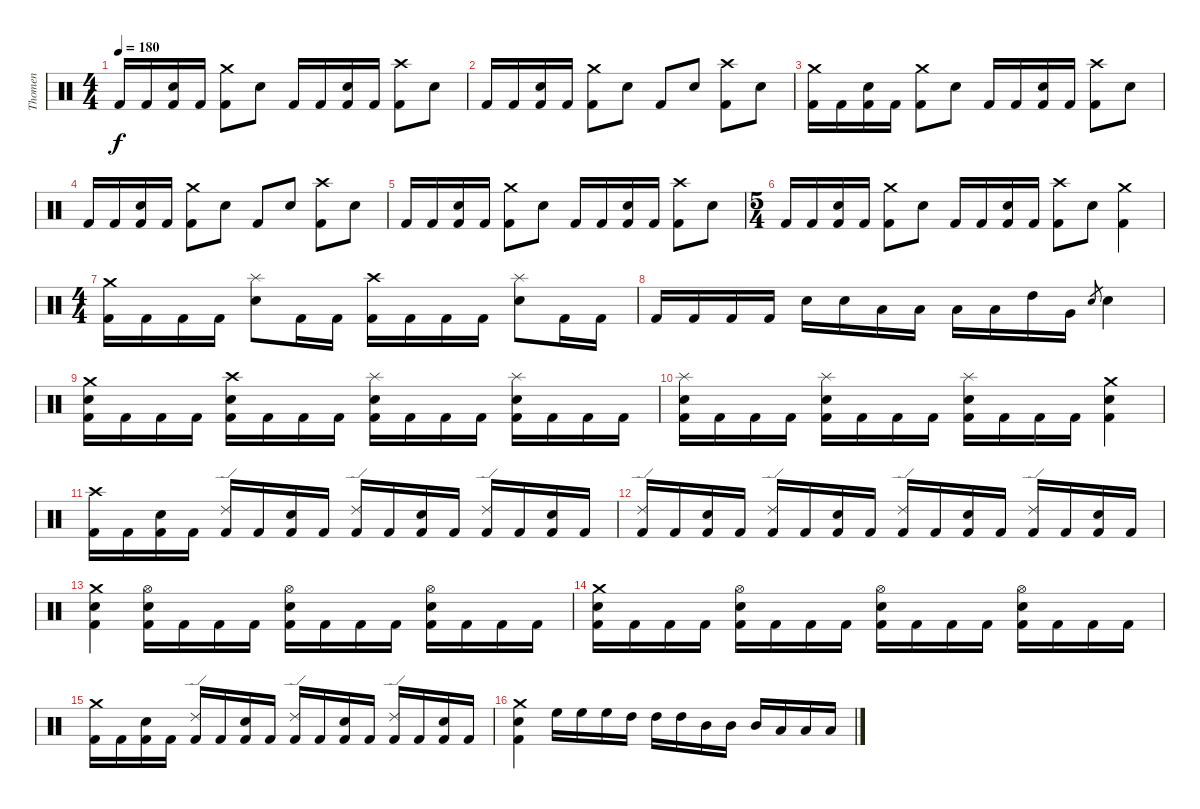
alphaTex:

\track ("Thomen" "Thomen") {instrument percussion}
\staff {score}
\articulation defaults
\ts (4 4)
\tempo 180
\clef neutral
\ks c "Kick (hit) 2".16{dy f} "Kick (hit) 2".16
("Kick (hit) 2" "Electric Snare (hit)").16 "Kick (hit) 2".16 ("Kick (hit) 2" "Crash medium (hit)").8 "Electric Snare (hit)".8 "Kick (hit) 2".16 "Kick (hit) 2".16 ("Kick (hit) 2" "Electric Snare (hit)").16 "Kick (hit) 2".16 ("Kick (hit) 2" "Crash high (hit)").8 "Electric Snare (hit)".8 |
"Kick (hit) 2".16 "Kick (hit) 2".16 ("Kick (hit) 2" "Electric Snare (hit)").16 "Kick (hit) 2".16 ("Kick (hit) 2" "Crash medium (hit)").8 "Electric Snare (hit)".8 "Kick (hit) 2".8 "Electric Snare (hit)".8 ("Kick (hit) 2" "Crash high (hit)").8 "Electric Snare (hit)".8 |
("Kick (hit) 2" "Crash medium (hit)").16 "Kick (hit) 2".16 ("Kick (hit) 2" "Electric Snare (hit)").16 "Kick (hit) 2".16 ("Kick (hit) 2" "Crash medium (hit)").8 "Electric Snare (hit)".8 "Kick (hit) 2".16 "Kick (hit) 2".16 ("Kick (hit) 2" "Electric Snare (hit)").16 "Kick (hit) 2".16 ("Kick (hit) 2" "Crash high (hit)").8 "Electric Snare (hit)".8 |
"Kick (hit) 2".16 "Kick (hit) 2".16 ("Kick (hit) 2" "Electric Snare (hit)").16 "Kick (hit) 2".16 ("Kick (hit) 2" "Crash medium (hit)").8 "Electric Snare (hit)".8 "Kick (hit) 2".8 "Electric Snare (hit)".8 ("Kick (hit) 2" "Crash high (hit)").8 "Electric Snare (hit)".8 |
"Kick (hit) 2".16 "Kick (hit) 2".16 ("Kick (hit) 2" "Electric Snare (hit)").16 "Kick (hit) 2".16 ("Kick (hit) 2" "Crash medium (hit)").8 "Electric Snare (hit)".8 "Kick (hit) 2".16 "Kick (hit) 2".16 ("Kick (hit) 2" "Electric Snare (hit)").16 "Kick (hit) 2".16 ("Kick (hit) 2" "Crash high (hit)").8 "Electric Snare (hit)".8 |
\ts (5 4)
"Kick (hit) 2".16 "Kick (hit) 2".16 ("Kick (hit) 2" "Electric Snare (hit)").16 "Kick (hit) 2".16 ("Kick (hit) 2" "Crash medium (hit)").8 "Electric Snare (hit)".8 "Kick (hit) 2".16 "Kick (hit) 2".16 ("Kick (hit) 2" "Electric Snare (hit)").16 "Kick (hit) 2".16 ("Kick (hit) 2" "Crash high (hit)").8 "Electric Snare (hit)".8 ("Kick (hit) 2" "Crash medium (hit)").4 |
\ts (4 4)
("Kick (hit) 2" "Crash medium (hit)").16 "Kick (hit) 2".16 "Kick (hit) 2".16 "Kick (hit) 2".16 ("Electric Snare (hit)" "Splash (hit)").8 "Kick (hit) 2".16 "Kick (hit) 2".16 ("Kick (hit) 2" "Crash high (hit)").16 "Kick (hit) 2".16 "Kick (hit) 2".16 "Kick (hit) 2".16 ("Electric Snare (hit)" "Splash (hit)").8 "Kick (hit) 2".16 "Kick (hit) 2".16 |
"Kick (hit) 2".16 "Kick (hit) 2".16 "Kick (hit) 2".16 "Kick (hit) 2".16 "Electric Snare (hit)".16 "Electric Snare (hit)".16 "Low Tom (hit)".16 "Low Tom (hit)".16 "Low Tom (hit)".16 "Low Tom (hit)".16 "High Tom (hit)".16 "Very Low Tom (hit)".16 "Electric Snare (hit)".8{gr} "Electric Snare (hit)".4 |
("Kick (hit) 2" "Electric Snare (hit)" "Crash medium (hit)").16 "Kick (hit) 2".16 "Kick (hit) 2".16 "Kick (hit) 2".16 ("Kick (hit) 2" "Electric Snare (hit)" "Crash high (hit)").16 "Kick (hit) 2".16 "Kick (hit) 2".16 "Kick (hit) 2".16 ("Kick (hit) 2" "Electric Snare (hit)" "Splash (hit)").16 "Kick (hit) 2".16 "Kick (hit) 2".16 "Kick (hit) 2".16 ("Kick (hit) 2" "Electric Snare (hit)" "Splash (hit)").16 "Kick (hit) 2".16 "Kick (hit) 2".16 "Kick (hit) 2".16 |
("Kick (hit) 2" "Electric Snare (hit)" "Splash (hit)").16 "Kick (hit) 2".16 "Kick (hit) 2".16 "Kick (hit) 2".16 ("Kick (hit) 2" "Electric Snare (hit)" "Splash (hit)").16 "Kick (hit) 2".16 "Kick (hit) 2".16 "Kick (hit) 2".16 ("Kick (hit) 2" "Electric Snare (hit)" "Splash (hit)").16 "Kick (hit) 2".16 "Kick (hit) 2".16 "Kick (hit) 2".16 ("Kick (hit) 2" "Electric Snare (hit)" "Crash medium (hit)").4 |
("Kick (hit) 2" "Crash high (hit)").16 "Kick (hit) 2".16 ("Kick (hit) 2" "Electric Snare (hit)").16 "Kick (hit) 2".16 ("Kick (hit) 2" "Ride (edge) 2").16 "Kick (hit) 2".16 ("Kick (hit) 2" "Electric Snare (hit)").16 "Kick (hit) 2".16 ("Kick (hit) 2" "Ride (edge) 2").16 "Kick (hit) 2".16 ("Kick (hit) 2" "Electric Snare (hit)").16 "Kick (hit) 2".16 ("Kick (hit) 2" "Ride (edge) 2").16 "Kick (hit) 2".16 ("Kick (hit) 2" "Electric Snare (hit)").16 "Kick (hit) 2".16 |
("Kick (hit) 2" "Ride (edge) 2").16 "Kick (hit) 2".16 ("Kick (hit) 2" "Electric Snare (hit)").16 "Kick (hit) 2".16 ("Kick (hit) 2" "Ride (edge) 2").16 "Kick (hit) 2".16 ("Kick (hit) 2" "Electric Snare (hit)").16 "Kick (hit) 2".16 ("Kick (hit) 2" "Ride (edge) 2").16 "Kick (hit) 2".16 ("Kick (hit) 2" "Electric Snare (hit)").16 "Kick (hit) 2".16 ("Kick (hit) 2" "Ride (edge) 2").16 "Kick (hit) 2".16 ("Kick (hit) 2" "Electric Snare (hit)").16 "Kick (hit) 2".16 |
("Kick (hit) 2" "Electric Snare (hit)" "Crash medium (hit)").4 ("Kick (hit) 2" "Electric Snare (hit)" "Hi-Hat (open)").16 "Kick (hit) 2".16 "Kick (hit) 2".16 "Kick (hit) 2".16 ("Kick (hit) 2" "Electric Snare (hit)" "Hi-Hat (open)").16 "Kick (hit) 2".16 "Kick (hit) 2".16 "Kick (hit) 2".16 ("Kick (hit) 2" "Electric Snare (hit)" "Hi-Hat (open)").16 "Kick (hit) 2".16 "Kick (hit) 2".16 "Kick (hit) 2".16 |
("Kick (hit) 2" "Electric Snare (hit)" "Crash medium (hit)").16 "Kick (hit) 2".16 "Kick (hit) 2".16 "Kick (hit) 2".16 ("Kick (hit) 2" "Electric Snare (hit)" "Hi-Hat (open)").16 "Kick (hit) 2".16 "Kick (hit) 2".16 "Kick (hit) 2".16 ("Kick (hit) 2" "Electric Snare (hit)" "Hi-Hat (open)").16 "Kick (hit) 2".16 "Kick (hit) 2".16 "Kick (hit) 2".16 ("Kick (hit) 2" "Electric Snare (hit)" "Hi-Hat (open)").16 "Kick (hit) 2".16 "Kick (hit) 2".16 "Kick (hit) 2".16 |
("Kick (hit) 2" "Crash medium (hit)").16 "Kick (hit) 2".16 ("Kick (hit) 2" "Electric Snare (hit)").16 "Kick (hit) 2".16 ("Kick (hit) 2" "Ride (edge) 2").16 "Kick (hit) 2".16 ("Kick (hit) 2" "Electric Snare (hit)").16 "Kick (hit) 2".16 ("Kick (hit) 2" "Ride (edge) 2").16 "Kick (hit) 2".16 ("Kick (hit) 2" "Electric Snare (hit)").16 "Kick (hit) 2".16 ("Kick (hit) 2" "Ride (edge) 2").16 "Kick (hit) 2".16 ("Kick (hit) 2" "Electric Snare (hit)").16 "Kick (hit) 2".16 |
("Kick (hit) 2" "Electric Snare (hit)" "Crash medium (hit)").4 "High Floor Tom (hit)".16 "High Floor Tom (hit)".16 "High Floor Tom (hit)".16 "High Tom (hit)".16 "High Tom (hit)".16 "High Tom (hit)".16 "Mid Tom (hit)".16 "Mid Tom (hit)".16 "Mid Tom (hit)".16 "Low Tom (hit)".16 "Low Tom (hit)".16 "Low Tom (hit)".16
